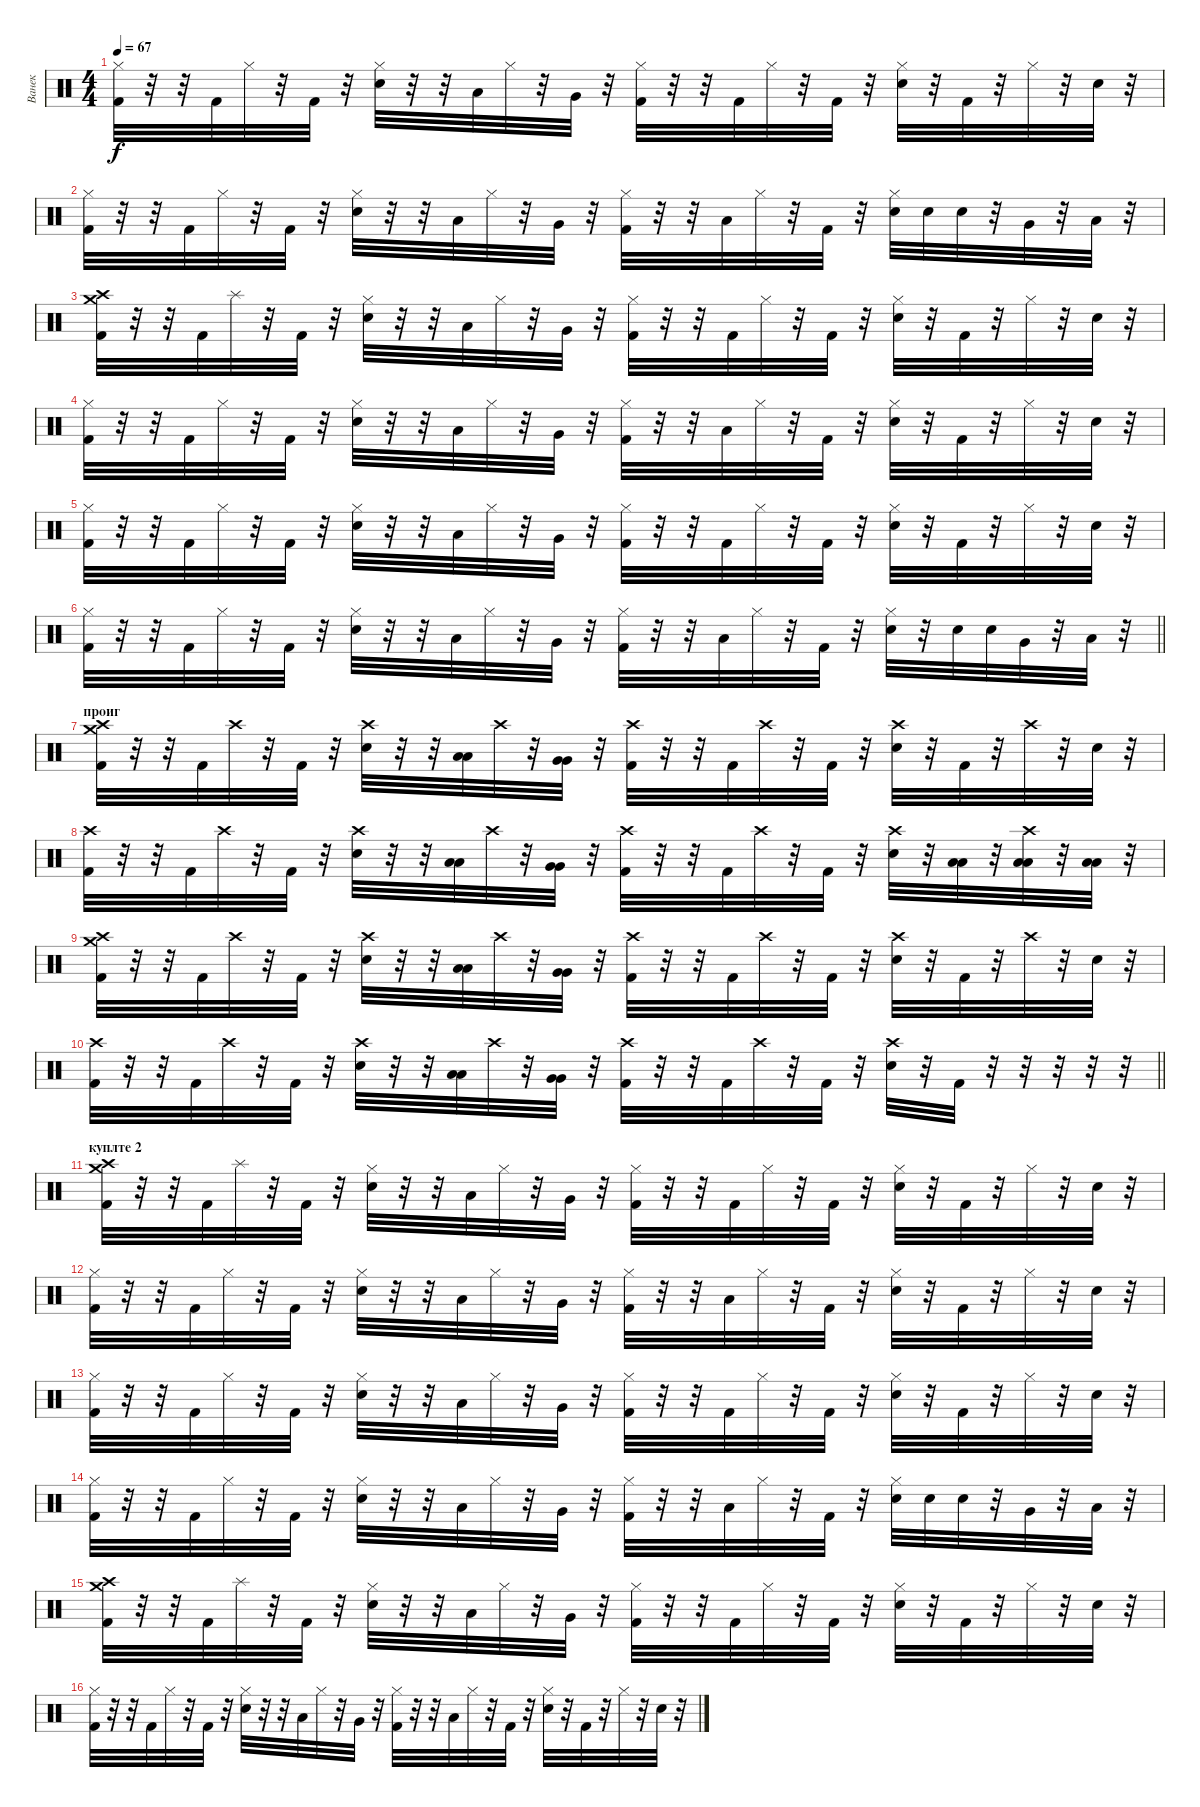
\track ("Ванек" "Ванек") {instrument percussion}
\staff {score}
\articulation defaults
\ts (4 4)
\tempo 67
\clef neutral
\ks c
("Hi-Hat (closed)" "Kick (hit) 2").32{dy f} r.32 r.32 "Kick (hit) 2".32 "Hi-Hat (closed)".32 r.32 "Kick (hit) 2".32 r.32 ("Hi-Hat (closed)" "Snare (hit) 2").32 r.32 r.32 "Low Tom (hit)".32 "Hi-Hat (closed)".32 r.32 "Very Low Tom (hit)".32 r.32 ("Hi-Hat (closed)" "Kick (hit) 2").32 r.32 r.32 "Kick (hit) 2".32 "Hi-Hat (closed)".32 r.32 "Kick (hit) 2".32 r.32 ("Hi-Hat (closed)" "Snare (hit) 2").32 r.32 "Kick (hit) 2".32 r.32 "Hi-Hat (closed)".32 r.32 "Snare (hit) 2".32 r.32 |
("Hi-Hat (closed)" "Kick (hit) 2").32 r.32 r.32 "Kick (hit) 2".32 "Hi-Hat (closed)".32 r.32 "Kick (hit) 2".32 r.32 ("Hi-Hat (closed)" "Snare (hit) 2").32 r.32 r.32 "Low Tom (hit)".32 "Hi-Hat (closed)".32 r.32 "Very Low Tom (hit)".32 r.32 ("Hi-Hat (closed)" "Kick (hit) 2").32 r.32 r.32 "Low Tom (hit)".32 "Hi-Hat (closed)".32 r.32 "Kick (hit) 2".32 r.32 ("Hi-Hat (closed)" "Snare (hit) 2").32 "Snare (hit) 2".32 "Snare (hit) 2".32 r.32 "Very Low Tom (hit)".32 r.32 "Low Tom (hit)".32 r.32 |
("Crash high (hit)" "Crash medium (hit)" "Kick (hit) 2").32 r.32 r.32 "Kick (hit) 2".32 "Splash (hit)".32 r.32 "Kick (hit) 2".32 r.32 ("Hi-Hat (closed)" "Snare (hit) 2").32 r.32 r.32 "Low Tom (hit)".32 "Hi-Hat (closed)".32 r.32 "Very Low Tom (hit)".32 r.32 ("Hi-Hat (closed)" "Kick (hit) 2").32 r.32 r.32 "Kick (hit) 2".32 "Hi-Hat (closed)".32 r.32 "Kick (hit) 2".32 r.32 ("Hi-Hat (closed)" "Snare (hit) 2").32 r.32 "Kick (hit) 2".32 r.32 "Hi-Hat (closed)".32 r.32 "Snare (hit) 2".32 r.32 |
("Hi-Hat (closed)" "Kick (hit) 2").32 r.32 r.32 "Kick (hit) 2".32 "Hi-Hat (closed)".32 r.32 "Kick (hit) 2".32 r.32 ("Hi-Hat (closed)" "Snare (hit) 2").32 r.32 r.32 "Low Tom (hit)".32 "Hi-Hat (closed)".32 r.32 "Very Low Tom (hit)".32 r.32 ("Hi-Hat (closed)" "Kick (hit) 2").32 r.32 r.32 "Low Tom (hit)".32 "Hi-Hat (closed)".32 r.32 "Kick (hit) 2".32 r.32 ("Hi-Hat (closed)" "Snare (hit) 2").32 r.32 "Kick (hit) 2".32 r.32 "Hi-Hat (closed)".32 r.32 "Snare (hit) 2".32 r.32 |
("Hi-Hat (closed)" "Kick (hit) 2").32 r.32 r.32 "Kick (hit) 2".32 "Hi-Hat (closed)".32 r.32 "Kick (hit) 2".32 r.32 ("Hi-Hat (closed)" "Snare (hit) 2").32 r.32 r.32 "Low Tom (hit)".32 "Hi-Hat (closed)".32 r.32 "Very Low Tom (hit)".32 r.32 ("Hi-Hat (closed)" "Kick (hit) 2").32 r.32 r.32 "Kick (hit) 2".32 "Hi-Hat (closed)".32 r.32 "Kick (hit) 2".32 r.32 ("Hi-Hat (closed)" "Snare (hit) 2").32 r.32 "Kick (hit) 2".32 r.32 "Hi-Hat (closed)".32 r.32 "Snare (hit) 2".32 r.32 |
\barLineRight lightlight
("Hi-Hat (closed)" "Kick (hit) 2").32 r.32 r.32 "Kick (hit) 2".32 "Hi-Hat (closed)".32 r.32 "Kick (hit) 2".32 r.32 ("Hi-Hat (closed)" "Snare (hit) 2").32 r.32 r.32 "Low Tom (hit)".32 "Hi-Hat (closed)".32 r.32 "Very Low Tom (hit)".32 r.32 ("Hi-Hat (closed)" "Kick (hit) 2").32 r.32 r.32 "Low Tom (hit)".32 "Hi-Hat (closed)".32 r.32 "Kick (hit) 2".32 r.32 ("Hi-Hat (closed)" "Snare (hit) 2").32 r.32 "Snare (hit) 2".32 "Snare (hit) 2".32 "Very Low Tom (hit)".32 r.32 "Low Tom (hit)".32 r.32 |
\section ("" "проиг")
("Crash high (hit)" "Crash medium (hit)" "Kick (hit) 2").32 r.32 r.32 "Kick (hit) 2".32 "Crash high (hit)".32 r.32 "Kick (hit) 2".32 r.32 ("Crash high (hit)" "Snare (hit) 2").32 r.32 r.32 ("Low Tom (hit)" "Low Tom (hit)").32 "Crash high (hit)".32 r.32 ("Very Low Tom (hit)" "Very Low Tom (hit)").32 r.32 ("Crash high (hit)" "Kick (hit) 2").32 r.32 r.32 "Kick (hit) 2".32 "Crash high (hit)".32 r.32 "Kick (hit) 2".32 r.32 ("Crash high (hit)" "Snare (hit) 2").32 r.32 "Kick (hit) 2".32 r.32 "Crash high (hit)".32 r.32 "Snare (hit) 2".32 r.32 |
("Crash high (hit)" "Kick (hit) 2").32 r.32 r.32 "Kick (hit) 2".32 "Crash high (hit)".32 r.32 "Kick (hit) 2".32 r.32 ("Crash high (hit)" "Snare (hit) 2").32 r.32 r.32 ("Low Tom (hit)" "Low Tom (hit)").32 "Crash high (hit)".32 r.32 ("Very Low Tom (hit)" "Very Low Tom (hit)").32 r.32 ("Crash high (hit)" "Kick (hit) 2").32 r.32 r.32 "Kick (hit) 2".32 "Crash high (hit)".32 r.32 "Kick (hit) 2".32 r.32 ("Crash high (hit)" "Snare (hit) 2").32 r.32 ("Low Tom (hit)" "Low Tom (hit)").32 r.32 ("Crash high (hit)" "Low Tom (hit)" "Low Tom (hit)").32 r.32 ("Low Tom (hit)" "Low Tom (hit)").32 r.32 |
("Crash high (hit)" "Crash medium (hit)" "Kick (hit) 2").32 r.32 r.32 "Kick (hit) 2".32 "Crash high (hit)".32 r.32 "Kick (hit) 2".32 r.32 ("Crash high (hit)" "Snare (hit) 2").32 r.32 r.32 ("Low Tom (hit)" "Low Tom (hit)").32 "Crash high (hit)".32 r.32 ("Very Low Tom (hit)" "Very Low Tom (hit)").32 r.32 ("Crash high (hit)" "Kick (hit) 2").32 r.32 r.32 "Kick (hit) 2".32 "Crash high (hit)".32 r.32 "Kick (hit) 2".32 r.32 ("Crash high (hit)" "Snare (hit) 2").32 r.32 "Kick (hit) 2".32 r.32 "Crash high (hit)".32 r.32 "Snare (hit) 2".32 r.32 |
\barLineRight lightlight
("Crash high (hit)" "Kick (hit) 2").32 r.32 r.32 "Kick (hit) 2".32 "Crash high (hit)".32 r.32 "Kick (hit) 2".32 r.32 ("Crash high (hit)" "Snare (hit) 2").32 r.32 r.32 ("Low Tom (hit)" "Low Tom (hit)").32 "Crash high (hit)".32 r.32 ("Very Low Tom (hit)" "Very Low Tom (hit)").32 r.32 ("Crash high (hit)" "Kick (hit) 2").32 r.32 r.32 "Kick (hit) 2".32 "Crash high (hit)".32 r.32 "Kick (hit) 2".32 r.32 ("Crash high (hit)" "Snare (hit) 2").32 r.32 "Kick (hit) 2".32 r.32 r.32 r.32 r.32 r.32 |
\section ("" "куплте 2")
("Crash high (hit)" "Crash medium (hit)" "Kick (hit) 2").32 r.32 r.32 "Kick (hit) 2".32 "Splash (hit)".32 r.32 "Kick (hit) 2".32 r.32 ("Hi-Hat (closed)" "Snare (hit) 2").32 r.32 r.32 "Low Tom (hit)".32 "Hi-Hat (closed)".32 r.32 "Very Low Tom (hit)".32 r.32 ("Hi-Hat (closed)" "Kick (hit) 2").32 r.32 r.32 "Kick (hit) 2".32 "Hi-Hat (closed)".32 r.32 "Kick (hit) 2".32 r.32 ("Hi-Hat (closed)" "Snare (hit) 2").32 r.32 "Kick (hit) 2".32 r.32 "Hi-Hat (closed)".32 r.32 "Snare (hit) 2".32 r.32 |
("Hi-Hat (closed)" "Kick (hit) 2").32 r.32 r.32 "Kick (hit) 2".32 "Hi-Hat (closed)".32 r.32 "Kick (hit) 2".32 r.32 ("Hi-Hat (closed)" "Snare (hit) 2").32 r.32 r.32 "Low Tom (hit)".32 "Hi-Hat (closed)".32 r.32 "Very Low Tom (hit)".32 r.32 ("Hi-Hat (closed)" "Kick (hit) 2").32 r.32 r.32 "Low Tom (hit)".32 "Hi-Hat (closed)".32 r.32 "Kick (hit) 2".32 r.32 ("Hi-Hat (closed)" "Snare (hit) 2").32 r.32 "Kick (hit) 2".32 r.32 "Hi-Hat (closed)".32 r.32 "Snare (hit) 2".32 r.32 |
("Hi-Hat (closed)" "Kick (hit) 2").32 r.32 r.32 "Kick (hit) 2".32 "Hi-Hat (closed)".32 r.32 "Kick (hit) 2".32 r.32 ("Hi-Hat (closed)" "Snare (hit) 2").32 r.32 r.32 "Low Tom (hit)".32 "Hi-Hat (closed)".32 r.32 "Very Low Tom (hit)".32 r.32 ("Hi-Hat (closed)" "Kick (hit) 2").32 r.32 r.32 "Kick (hit) 2".32 "Hi-Hat (closed)".32 r.32 "Kick (hit) 2".32 r.32 ("Hi-Hat (closed)" "Snare (hit) 2").32 r.32 "Kick (hit) 2".32 r.32 "Hi-Hat (closed)".32 r.32 "Snare (hit) 2".32 r.32 |
("Hi-Hat (closed)" "Kick (hit) 2").32 r.32 r.32 "Kick (hit) 2".32 "Hi-Hat (closed)".32 r.32 "Kick (hit) 2".32 r.32 ("Hi-Hat (closed)" "Snare (hit) 2").32 r.32 r.32 "Low Tom (hit)".32 "Hi-Hat (closed)".32 r.32 "Very Low Tom (hit)".32 r.32 ("Hi-Hat (closed)" "Kick (hit) 2").32 r.32 r.32 "Low Tom (hit)".32 "Hi-Hat (closed)".32 r.32 "Kick (hit) 2".32 r.32 ("Hi-Hat (closed)" "Snare (hit) 2").32 "Snare (hit) 2".32 "Snare (hit) 2".32 r.32 "Very Low Tom (hit)".32 r.32 "Low Tom (hit)".32 r.32 |
("Crash high (hit)" "Crash medium (hit)" "Kick (hit) 2").32 r.32 r.32 "Kick (hit) 2".32 "Splash (hit)".32 r.32 "Kick (hit) 2".32 r.32 ("Hi-Hat (closed)" "Snare (hit) 2").32 r.32 r.32 "Low Tom (hit)".32 "Hi-Hat (closed)".32 r.32 "Very Low Tom (hit)".32 r.32 ("Hi-Hat (closed)" "Kick (hit) 2").32 r.32 r.32 "Kick (hit) 2".32 "Hi-Hat (closed)".32 r.32 "Kick (hit) 2".32 r.32 ("Hi-Hat (closed)" "Snare (hit) 2").32 r.32 "Kick (hit) 2".32 r.32 "Hi-Hat (closed)".32 r.32 "Snare (hit) 2".32 r.32 |
("Hi-Hat (closed)" "Kick (hit) 2").32 r.32 r.32 "Kick (hit) 2".32 "Hi-Hat (closed)".32 r.32 "Kick (hit) 2".32 r.32 ("Hi-Hat (closed)" "Snare (hit) 2").32 r.32 r.32 "Low Tom (hit)".32 "Hi-Hat (closed)".32 r.32 "Very Low Tom (hit)".32 r.32 ("Hi-Hat (closed)" "Kick (hit) 2").32 r.32 r.32 "Low Tom (hit)".32 "Hi-Hat (closed)".32 r.32 "Kick (hit) 2".32 r.32 ("Hi-Hat (closed)" "Snare (hit) 2").32 r.32 "Kick (hit) 2".32 r.32 "Hi-Hat (closed)".32 r.32 "Snare (hit) 2".32 r.32
